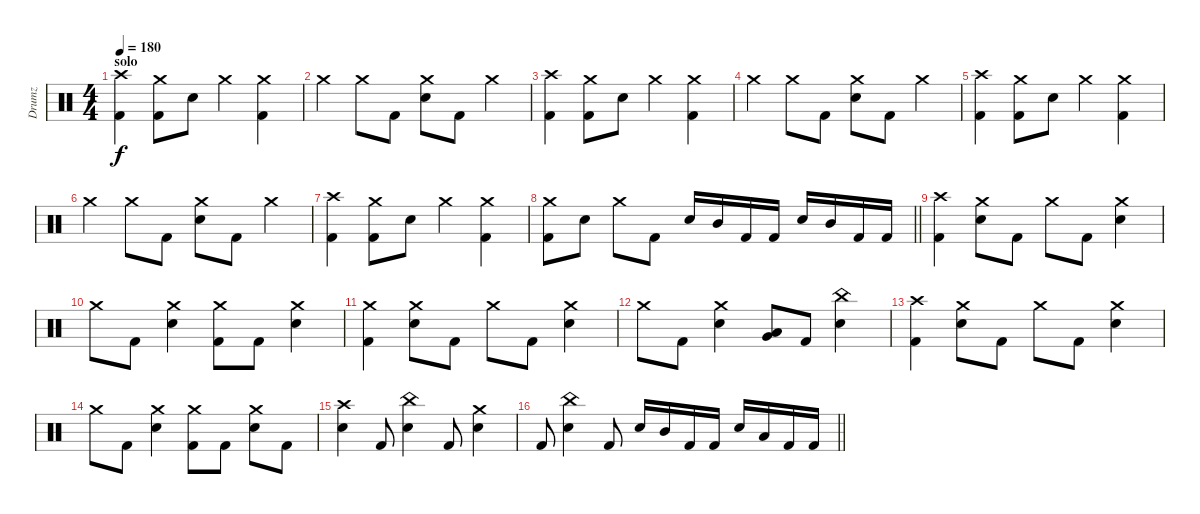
\track ("Drumz" "Drumz") {instrument percussion}
\staff {score}
\articulation defaults
\ts (4 4)
\section ("" "solo")
\tempo 180
\clef neutral
\ks c
("Crash high (hit)" "Kick (hit) 2").4{dy f} ("Crash medium (hit)" "Kick (hit) 2").8 "Electric Snare (hit)".8 "Crash medium (hit)".4 ("Crash medium (hit)" "Kick (hit) 2").4 |
"Crash medium (hit)".4 "Crash medium (hit)".8 "Kick (hit) 2".8 ("Crash medium (hit)" "Electric Snare (hit)").8 "Kick (hit) 2".8 "Crash medium (hit)".4 |
("Crash high (hit)" "Kick (hit) 2").4 ("Crash medium (hit)" "Kick (hit) 2").8 "Electric Snare (hit)".8 "Crash medium (hit)".4 ("Crash medium (hit)" "Kick (hit) 2").4 |
"Crash medium (hit)".4 "Crash medium (hit)".8 "Kick (hit) 2".8 ("Crash medium (hit)" "Electric Snare (hit)").8 "Kick (hit) 2".8 "Crash medium (hit)".4 |
("Crash high (hit)" "Kick (hit) 2").4 ("Crash medium (hit)" "Kick (hit) 2").8 "Electric Snare (hit)".8 "Crash medium (hit)".4 ("Crash medium (hit)" "Kick (hit) 2").4 |
"Crash medium (hit)".4 "Crash medium (hit)".8 "Kick (hit) 2".8 ("Crash medium (hit)" "Electric Snare (hit)").8 "Kick (hit) 2".8 "Crash medium (hit)".4 |
("Crash high (hit)" "Kick (hit) 2").4 ("Crash medium (hit)" "Kick (hit) 2").8 "Electric Snare (hit)".8 "Crash medium (hit)".4 ("Crash medium (hit)" "Kick (hit) 2").4 |
\barLineRight lightlight
("Crash medium (hit)" "Kick (hit) 2").8 "Electric Snare (hit)".8 "Crash medium (hit)".8 "Kick (hit) 2".8 "Electric Snare (hit)".16 "Mid Tom (hit)".16 "Kick (hit) 2".16 "Kick (hit) 2".16 "Electric Snare (hit)".16 "Mid Tom (hit)".16 "Kick (hit) 2".16 "Kick (hit) 2".16 |
\section ("" "")
("Crash high (hit)" "Kick (hit) 2").4 ("Crash medium (hit)" "Electric Snare (hit)").8 "Kick (hit) 2".8 "Crash medium (hit)".8 "Kick (hit) 2".8 ("Crash medium (hit)" "Electric Snare (hit)").4 |
"Crash medium (hit)".8 "Kick (hit) 2".8 ("Crash medium (hit)" "Electric Snare (hit)").4 ("Crash medium (hit)" "Kick (hit) 2").8 "Kick (hit) 2".8 ("Crash medium (hit)" "Electric Snare (hit)").4 |
("Crash medium (hit)" "Kick (hit) 2").4 ("Crash medium (hit)" "Electric Snare (hit)").8 "Kick (hit) 2".8 "Crash medium (hit)".8 "Kick (hit) 2".8 ("Crash medium (hit)" "Electric Snare (hit)").4 |
"Crash medium (hit)".8 "Kick (hit) 2".8 ("Crash medium (hit)" "Electric Snare (hit)").4 ("Low Tom (hit)" "Very Low Tom (hit)").8 "Kick (hit) 2".8 ("China (hit)" "Electric Snare (hit)").4 |
("Crash high (hit)" "Kick (hit) 2").4 ("Crash medium (hit)" "Electric Snare (hit)").8 "Kick (hit) 2".8 "Crash medium (hit)".8 "Kick (hit) 2".8 ("Crash medium (hit)" "Electric Snare (hit)").4 |
"Crash medium (hit)".8 "Kick (hit) 2".8 ("Crash medium (hit)" "Electric Snare (hit)").4 ("Crash medium (hit)" "Kick (hit) 2").8 "Kick (hit) 2".8 ("Crash medium (hit)" "Electric Snare (hit)").8 "Kick (hit) 2".8 |
("Crash high (hit)" "Electric Snare (hit)").4 "Kick (hit) 2".8 ("China (hit)" "Electric Snare (hit)").4 "Kick (hit) 2".8 ("Crash medium (hit)" "Electric Snare (hit)").4 |
\barLineRight lightlight "Kick (hit) 2".8
("China (hit)" "Electric Snare (hit)").4 "Kick (hit) 2".8 "Electric Snare (hit)".16 "Mid Tom (hit)".16 "Kick (hit) 2".16 "Kick (hit) 2".16 "Electric Snare (hit)".16 "Low Tom (hit)".16 "Kick (hit) 2".16 "Kick (hit) 2".16
